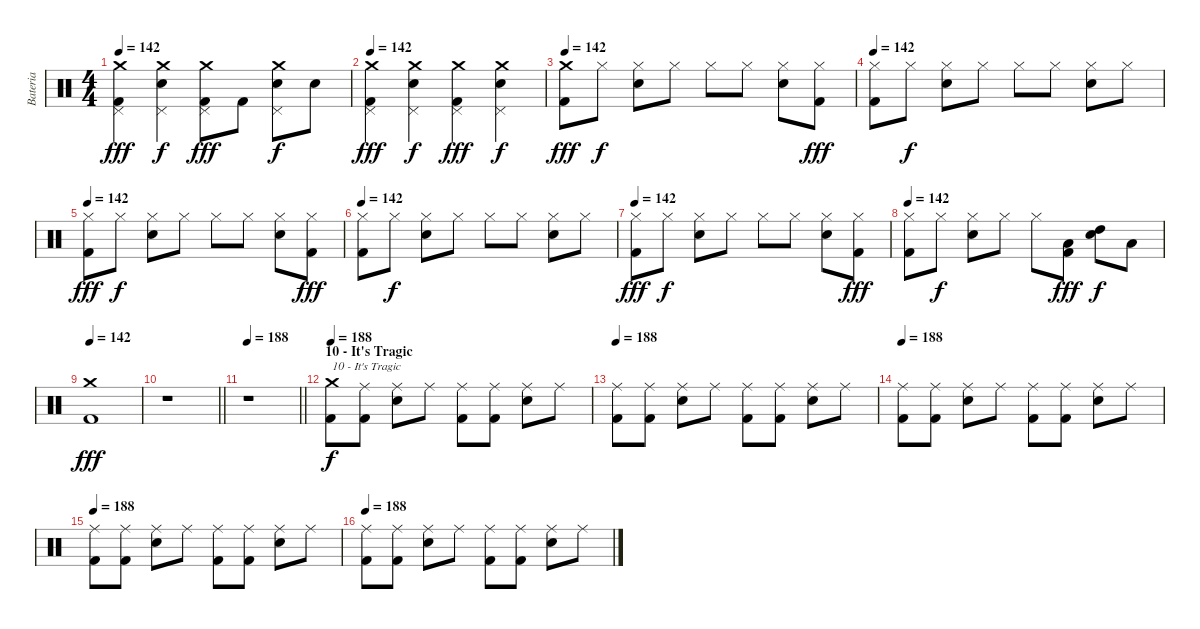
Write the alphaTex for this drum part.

\track ("Bateria" "Bateria") {instrument percussion}
\staff {score}
\articulation defaults
\ts (4 4)
\tempo 142
\clef neutral
\ks c
("Crash medium (hit)" "Pedal Hi-Hat (hit)" "Kick (hit) 2").4{dy fff} ("Crash medium (hit)" "Pedal Hi-Hat (hit)" "Electric Snare (hit)").4{dy f} ("Crash medium (hit)" "Pedal Hi-Hat (hit)" "Kick (hit) 2").8{dy fff} "Kick (hit) 2".8 ("Crash medium (hit)" "Pedal Hi-Hat (hit)" "Electric Snare (hit)").8{dy f} "Electric Snare (hit)".8 |
\tempo 142
("Crash medium (hit)" "Pedal Hi-Hat (hit)" "Kick (hit) 2").4{dy fff} ("Crash medium (hit)" "Pedal Hi-Hat (hit)" "Electric Snare (hit)").4{dy f} ("Crash medium (hit)" "Pedal Hi-Hat (hit)" "Kick (hit) 2").4{dy fff} ("Crash medium (hit)" "Pedal Hi-Hat (hit)" "Electric Snare (hit)").4{dy f} |
\tempo 142
("Crash medium (hit)" "Kick (hit) 2").8{dy fff} "Hi-Hat (closed)".8{dy f} ("Hi-Hat (closed)" "Electric Snare (hit)").8 "Hi-Hat (closed)".8 "Hi-Hat (closed)".8 "Hi-Hat (closed)".8 ("Hi-Hat (closed)" "Electric Snare (hit)").8 ("Hi-Hat (closed)" "Kick (hit) 2").8{dy fff} |
\tempo 142
("Hi-Hat (closed)" "Kick (hit) 2").8 "Hi-Hat (closed)".8{dy f} ("Hi-Hat (closed)" "Electric Snare (hit)").8 "Hi-Hat (closed)".8 "Hi-Hat (closed)".8 "Hi-Hat (closed)".8 ("Hi-Hat (closed)" "Electric Snare (hit)").8 "Hi-Hat (closed)".8 |
\tempo 142
("Hi-Hat (closed)" "Kick (hit) 2").8{dy fff} "Hi-Hat (closed)".8{dy f} ("Hi-Hat (closed)" "Electric Snare (hit)").8 "Hi-Hat (closed)".8 "Hi-Hat (closed)".8 "Hi-Hat (closed)".8 ("Hi-Hat (closed)" "Electric Snare (hit)").8 ("Hi-Hat (closed)" "Kick (hit) 2").8{dy fff} |
\tempo 142
("Hi-Hat (closed)" "Kick (hit) 2").8 "Hi-Hat (closed)".8{dy f} ("Hi-Hat (closed)" "Electric Snare (hit)").8 "Hi-Hat (closed)".8 "Hi-Hat (closed)".8 "Hi-Hat (closed)".8 ("Hi-Hat (closed)" "Electric Snare (hit)").8 "Hi-Hat (closed)".8 |
\tempo 142
("Hi-Hat (closed)" "Kick (hit) 2").8{dy fff} "Hi-Hat (closed)".8{dy f} ("Hi-Hat (closed)" "Electric Snare (hit)").8 "Hi-Hat (closed)".8 "Hi-Hat (closed)".8 "Hi-Hat (closed)".8 ("Hi-Hat (closed)" "Electric Snare (hit)").8 ("Hi-Hat (closed)" "Kick (hit) 2").8{dy fff} |
\tempo 142
("Hi-Hat (closed)" "Kick (hit) 2").8 "Hi-Hat (closed)".8{dy f} ("Hi-Hat (closed)" "Electric Snare (hit)").8 "Hi-Hat (closed)".8 "Hi-Hat (closed)".8 ("Low Tom (hit)" "Kick (hit) 2").8{dy fff} ("High Tom (hit)" "Electric Snare (hit)").8{dy f} "Low Tom (hit)".8 |
\tempo 142
("Crash medium (hit)" "Kick (hit) 2").1{dy fff} |
\barLineRight lightlight
r.1 |
\tempo 188
\barLineRight lightlight
r.1 |
\section ("" "10 - It's Tragic")
\tempo 188
("Crash medium (hit)" "Kick (hit) 2").8{txt "10 - It's Tragic" dy f} ("Ride (middle)" "Kick (hit) 2").8 ("Ride (middle)" "Electric Snare (hit)").8 "Ride (middle)".8 ("Ride (middle)" "Kick (hit) 2").8 ("Ride (middle)" "Kick (hit) 2").8 ("Ride (middle)" "Electric Snare (hit)").8 "Ride (middle)".8 |
\tempo 188
("Ride (middle)" "Kick (hit) 2").8 ("Ride (middle)" "Kick (hit) 2").8 ("Ride (middle)" "Electric Snare (hit)").8 "Ride (middle)".8 ("Ride (middle)" "Kick (hit) 2").8 ("Ride (middle)" "Kick (hit) 2").8 ("Ride (middle)" "Electric Snare (hit)").8 "Ride (middle)".8 |
\tempo 188
("Ride (middle)" "Kick (hit) 2").8 ("Ride (middle)" "Kick (hit) 2").8 ("Ride (middle)" "Electric Snare (hit)").8 "Ride (middle)".8 ("Ride (middle)" "Kick (hit) 2").8 ("Ride (middle)" "Kick (hit) 2").8 ("Ride (middle)" "Electric Snare (hit)").8 "Ride (middle)".8 |
\tempo 188
("Ride (middle)" "Kick (hit) 2").8 ("Ride (middle)" "Kick (hit) 2").8 ("Ride (middle)" "Electric Snare (hit)").8 "Ride (middle)".8 ("Ride (middle)" "Kick (hit) 2").8 ("Ride (middle)" "Kick (hit) 2").8 ("Ride (middle)" "Electric Snare (hit)").8 "Ride (middle)".8 |
\tempo 188
("Ride (middle)" "Kick (hit) 2").8 ("Ride (middle)" "Kick (hit) 2").8 ("Ride (middle)" "Electric Snare (hit)").8 "Ride (middle)".8 ("Ride (middle)" "Kick (hit) 2").8 ("Ride (middle)" "Kick (hit) 2").8 ("Ride (middle)" "Electric Snare (hit)").8 "Ride (middle)".8
